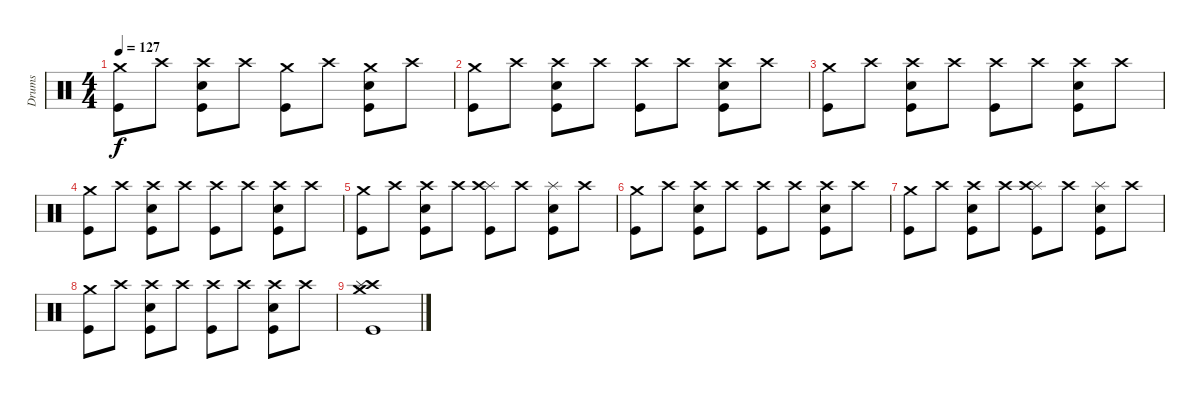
\track ("Drums" "Drums") {instrument percussion}
\staff {score}
\articulation defaults
\ts (4 4)
\tempo 127
\clef neutral
\ks c
("Crash medium (hit)" "Kick (hit)").8{dy f} "Crash high (hit)".8 ("Crash high (hit)" "Electric Snare (hit)" "Kick (hit)").8 "Crash high (hit)".8 ("Crash medium (hit)" "Kick (hit)").8 "Crash high (hit)".8 ("Crash medium (hit)" "Electric Snare (hit)" "Kick (hit)").8 "Crash high (hit)".8 |
("Crash medium (hit)" "Kick (hit)").8 "Crash high (hit)".8 ("Crash high (hit)" "Electric Snare (hit)" "Kick (hit)").8 "Crash high (hit)".8 ("Crash high (hit)" "Kick (hit)").8 "Crash high (hit)".8 ("Crash high (hit)" "Electric Snare (hit)" "Kick (hit)").8 "Crash high (hit)".8 |
("Crash medium (hit)" "Kick (hit)").8 "Crash high (hit)".8 ("Crash high (hit)" "Electric Snare (hit)" "Kick (hit)").8 "Crash high (hit)".8 ("Crash high (hit)" "Kick (hit)").8 "Crash high (hit)".8 ("Crash high (hit)" "Electric Snare (hit)" "Kick (hit)").8 "Crash high (hit)".8 |
("Crash medium (hit)" "Kick (hit)").8 "Crash high (hit)".8 ("Crash high (hit)" "Electric Snare (hit)" "Kick (hit)").8 "Crash high (hit)".8 ("Crash high (hit)" "Kick (hit)").8 "Crash high (hit)".8 ("Crash high (hit)" "Electric Snare (hit)" "Kick (hit)").8 "Crash high (hit)".8 |
("Crash medium (hit)" "Kick (hit)").8 "Crash high (hit)".8 ("Crash high (hit)" "Electric Snare (hit)" "Kick (hit)").8 "Crash high (hit)".8 ("Splash (hit)" "Crash high (hit)" "Kick (hit)").8 "Crash high (hit)".8 ("Splash (hit)" "Electric Snare (hit)" "Kick (hit)").8 "Crash high (hit)".8 |
("Crash medium (hit)" "Kick (hit)").8 "Crash high (hit)".8 ("Crash high (hit)" "Electric Snare (hit)" "Kick (hit)").8 "Crash high (hit)".8 ("Crash high (hit)" "Kick (hit)").8 "Crash high (hit)".8 ("Crash high (hit)" "Electric Snare (hit)" "Kick (hit)").8 "Crash high (hit)".8 |
("Crash medium (hit)" "Kick (hit)").8 "Crash high (hit)".8 ("Crash high (hit)" "Electric Snare (hit)" "Kick (hit)").8 "Crash high (hit)".8 ("Splash (hit)" "Crash high (hit)" "Kick (hit)").8 "Crash high (hit)".8 ("Splash (hit)" "Electric Snare (hit)" "Kick (hit)").8 "Crash high (hit)".8 |
("Crash medium (hit)" "Kick (hit)").8 "Crash high (hit)".8 ("Crash high (hit)" "Electric Snare (hit)" "Kick (hit)").8 "Crash high (hit)".8 ("Crash high (hit)" "Kick (hit)").8 "Crash high (hit)".8 ("Crash high (hit)" "Electric Snare (hit)" "Kick (hit)").8 "Crash high (hit)".8 |
("Crash medium (hit)" "Crash high (hit)" "Splash (hit)" "Kick (hit)").1
